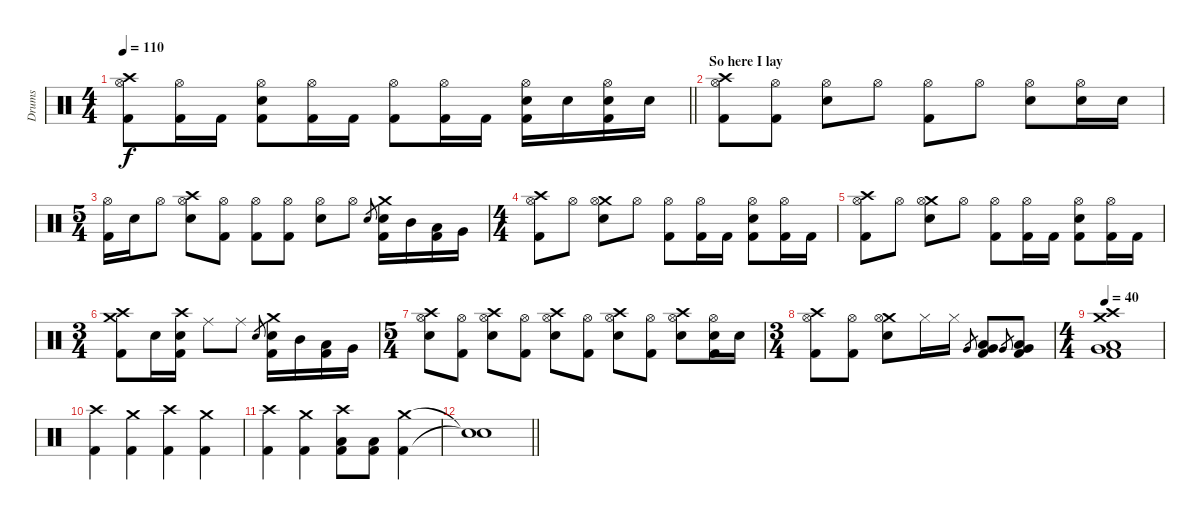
\track ("Drums" "Drums") {instrument percussion}
\staff {score}
\articulation defaults
\ts (4 4)
\tempo 110
\clef neutral
\barLineRight lightlight
\ks c
("Crash high (hit)" "Hi-Hat (open)" "Kick (hit) 2").8{dy f} ("Hi-Hat (open)" "Kick (hit) 2").16 "Kick (hit) 2".16 ("Hi-Hat (open)" "Snare (hit) 2" "Kick (hit) 2").8 ("Hi-Hat (open)" "Kick (hit) 2").16 "Kick (hit) 2".16 ("Hi-Hat (open)" "Kick (hit) 2").8 ("Hi-Hat (open)" "Kick (hit) 2").16 "Kick (hit) 2".16 ("Hi-Hat (open)" "Snare (hit) 2" "Kick (hit) 2").16 "Snare (hit) 2".16 ("Hi-Hat (open)" "Snare (hit) 2" "Kick (hit) 2").16 "Snare (hit) 2".16 |
\section ("" "So here I lay")
("Crash high (hit)" "Hi-Hat (open)" "Kick (hit) 2").8 ("Hi-Hat (open)" "Kick (hit) 2").8 ("Hi-Hat (open)" "Snare (hit) 2").8 "Hi-Hat (open)".8 ("Hi-Hat (open)" "Kick (hit) 2").8 "Hi-Hat (open)".8 ("Hi-Hat (open)" "Snare (hit) 2").8 ("Hi-Hat (open)" "Snare (hit) 2").16 "Snare (hit) 2".16 |
\ts (5 4)
("Hi-Hat (open)" "Kick (hit) 2").16 "Snare (hit) 2".16 "Hi-Hat (open)".8 ("Crash high (hit)" "Hi-Hat (open)" "Snare (hit) 2").8 ("Hi-Hat (open)" "Kick (hit) 2").8 ("Hi-Hat (open)" "Kick (hit) 2").8 ("Hi-Hat (open)" "Kick (hit) 2").8 ("Hi-Hat (open)" "Snare (hit) 2").8 "Hi-Hat (open)".8 "Snare (hit) 2".8{gr} ("Crash medium (hit)" "Snare (hit) 2" "Kick (hit) 2").16 "Mid Tom (hit)".16 ("Low Tom (hit)" "Kick (hit) 2").16 "Very Low Tom (hit)".16 |
\ts (4 4)
("Crash high (hit)" "Hi-Hat (open)" "Kick (hit) 2").8 "Hi-Hat (open)".8 ("Crash medium (hit)" "Hi-Hat (open)" "Snare (hit) 2").8 "Hi-Hat (open)".8 ("Hi-Hat (open)" "Kick (hit) 2").8 ("Hi-Hat (open)" "Kick (hit) 2").16 "Kick (hit) 2".16 ("Hi-Hat (open)" "Snare (hit) 2" "Kick (hit) 2").8 ("Hi-Hat (open)" "Kick (hit) 2").16 "Kick (hit) 2".16 |
("Crash high (hit)" "Hi-Hat (open)" "Kick (hit) 2").8 "Hi-Hat (open)".8 ("Crash medium (hit)" "Hi-Hat (open)" "Snare (hit) 2").8 "Hi-Hat (open)".8 ("Hi-Hat (open)" "Kick (hit) 2").8 ("Hi-Hat (open)" "Kick (hit) 2").16 "Kick (hit) 2".16 ("Hi-Hat (open)" "Snare (hit) 2" "Kick (hit) 2").8 ("Hi-Hat (open)" "Kick (hit) 2").16 "Kick (hit) 2".16 |
\ts (3 4)
("Crash medium (hit)" "Crash high (hit)" "Kick (hit) 2").8 "Snare (hit) 2".16 ("Crash high (hit)" "Snare (hit) 2" "Kick (hit) 2").16 "Ride (middle)".8 "Ride (middle)".8 "Snare (hit) 2".8{gr} ("Crash medium (hit)" "Snare (hit) 2" "Kick (hit) 2").16 "Mid Tom (hit)".16 ("Low Tom (hit)" "Kick (hit) 2").16 "Very Low Tom (hit)".16 |
\ts (5 4)
("Crash high (hit)" "Hi-Hat (open)" "Snare (hit) 2").8 ("Hi-Hat (open)" "Kick (hit) 2").8 ("Crash high (hit)" "Hi-Hat (open)" "Snare (hit) 2").8 ("Hi-Hat (open)" "Kick (hit) 2").8 ("Crash high (hit)" "Hi-Hat (open)" "Snare (hit) 2").8 ("Hi-Hat (open)" "Kick (hit) 2").8 ("Crash high (hit)" "Hi-Hat (open)" "Snare (hit) 2").8 ("Hi-Hat (open)" "Kick (hit) 2").8 ("Crash high (hit)" "Hi-Hat (open)" "Snare (hit) 2").8 ("Hi-Hat (open)" "Snare (hit) 2" "Kick (hit) 2").16 "Snare (hit) 2".16 |
\ts (3 4)
("Crash high (hit)" "Hi-Hat (open)" "Kick (hit) 2").8 ("Hi-Hat (open)" "Kick (hit) 2").8 ("Crash medium (hit)" "Hi-Hat (open)" "Snare (hit) 2").8 "Hi-Hat (closed)".16 "Hi-Hat (closed)".16 "Very Low Tom (hit)".8{gr} ("Low Tom (hit)" "Very Low Tom (hit)" "Kick (hit) 2").8 "Very Low Tom (hit)".8{gr} ("Low Tom (hit)" "Very Low Tom (hit)" "Kick (hit) 2").8 |
\ts (4 4)
\tempo 40
("Crash high (hit)" "Crash medium (hit)" "Low Tom (hit)" "Very Low Tom (hit)" "Kick (hit) 2").1 |
("Crash high (hit)" "Kick (hit) 2").4 ("Crash medium (hit)" "Kick (hit) 2").4 ("Crash high (hit)" "Kick (hit) 2").4 ("Crash medium (hit)" "Kick (hit) 2").4 |
("Crash high (hit)" "Kick (hit) 2").4 ("Crash medium (hit)" "Kick (hit) 2").4 ("Crash high (hit)" "Low Floor Tom (hit)" "Kick (hit) 2").8 ("Low Floor Tom (hit)" "Kick (hit) 2").8 ("Crash medium (hit)" "Kick (hit) 2").4 |
\barLineRight lightlight
("Snare (hit)"{t} "Snare (hit)"{t}).1
